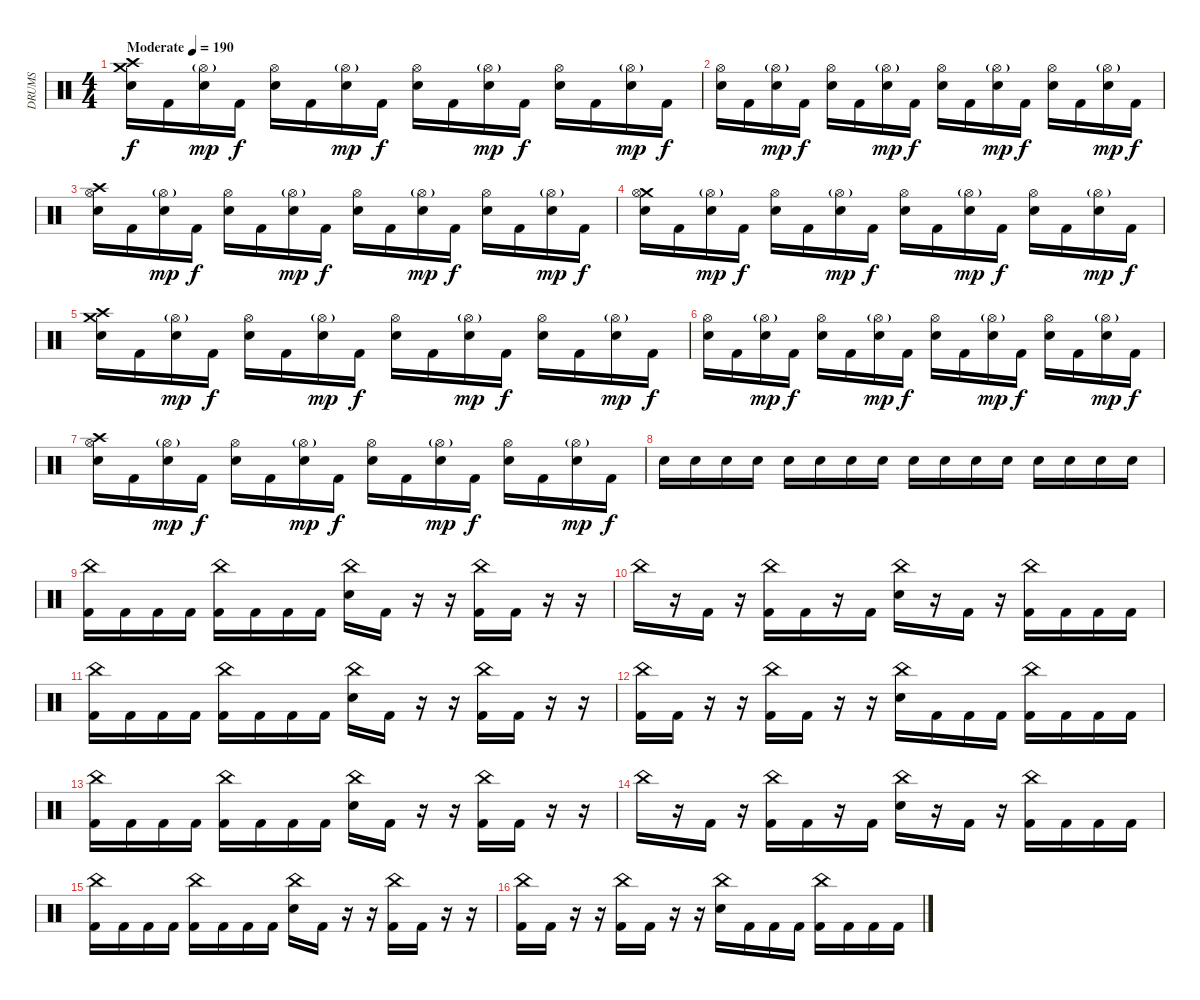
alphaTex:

\track ("DRUMS" "DRUMS") {instrument percussion}
\staff {score}
\articulation defaults
\ts (4 4)
\tempo (190 "Moderate")
\clef neutral
\ks c
("Crash high (hit)" "Crash medium (hit)" "Electric Snare (hit)").16{dy f} "Kick (hit) 2".16 ("Hi-Hat (open)"{g} "Electric Snare (hit)").16{dy mp} "Kick (hit) 2".16{dy f} ("Hi-Hat (open)" "Electric Snare (hit)").16 "Kick (hit) 2".16 ("Hi-Hat (open)"{g} "Electric Snare (hit)").16{dy mp} "Kick (hit) 2".16{dy f} ("Hi-Hat (open)" "Electric Snare (hit)").16 "Kick (hit) 2".16 ("Hi-Hat (open)"{g} "Electric Snare (hit)").16{dy mp} "Kick (hit) 2".16{dy f} ("Hi-Hat (open)" "Electric Snare (hit)").16 "Kick (hit) 2".16 ("Hi-Hat (open)"{g} "Electric Snare (hit)").16{dy mp} "Kick (hit) 2".16{dy f} |
("Hi-Hat (open)" "Electric Snare (hit)").16 "Kick (hit) 2".16 ("Hi-Hat (open)"{g} "Electric Snare (hit)").16{dy mp} "Kick (hit) 2".16{dy f} ("Hi-Hat (open)" "Electric Snare (hit)").16 "Kick (hit) 2".16 ("Hi-Hat (open)"{g} "Electric Snare (hit)").16{dy mp} "Kick (hit) 2".16{dy f} ("Hi-Hat (open)" "Electric Snare (hit)").16 "Kick (hit) 2".16 ("Hi-Hat (open)"{g} "Electric Snare (hit)").16{dy mp} "Kick (hit) 2".16{dy f} ("Hi-Hat (open)" "Electric Snare (hit)").16 "Kick (hit) 2".16 ("Hi-Hat (open)"{g} "Electric Snare (hit)").16{dy mp} "Kick (hit) 2".16{dy f} |
("Crash high (hit)" "Hi-Hat (open)" "Electric Snare (hit)").16 "Kick (hit) 2".16 ("Hi-Hat (open)"{g} "Electric Snare (hit)").16{dy mp} "Kick (hit) 2".16{dy f} ("Hi-Hat (open)" "Electric Snare (hit)").16 "Kick (hit) 2".16 ("Hi-Hat (open)"{g} "Electric Snare (hit)").16{dy mp} "Kick (hit) 2".16{dy f} ("Hi-Hat (open)" "Electric Snare (hit)").16 "Kick (hit) 2".16 ("Hi-Hat (open)"{g} "Electric Snare (hit)").16{dy mp} "Kick (hit) 2".16{dy f} ("Hi-Hat (open)" "Electric Snare (hit)").16 "Kick (hit) 2".16 ("Hi-Hat (open)"{g} "Electric Snare (hit)").16{dy mp} "Kick (hit) 2".16{dy f} |
("Crash medium (hit)" "Hi-Hat (open)" "Electric Snare (hit)").16 "Kick (hit) 2".16 ("Hi-Hat (open)"{g} "Electric Snare (hit)").16{dy mp} "Kick (hit) 2".16{dy f} ("Hi-Hat (open)" "Electric Snare (hit)").16 "Kick (hit) 2".16 ("Hi-Hat (open)"{g} "Electric Snare (hit)").16{dy mp} "Kick (hit) 2".16{dy f} ("Hi-Hat (open)" "Electric Snare (hit)").16 "Kick (hit) 2".16 ("Hi-Hat (open)"{g} "Electric Snare (hit)").16{dy mp} "Kick (hit) 2".16{dy f} ("Hi-Hat (open)" "Electric Snare (hit)").16 "Kick (hit) 2".16 ("Hi-Hat (open)"{g} "Electric Snare (hit)").16{dy mp} "Kick (hit) 2".16{dy f} |
("Crash high (hit)" "Crash medium (hit)" "Electric Snare (hit)").16 "Kick (hit) 2".16 ("Hi-Hat (open)"{g} "Electric Snare (hit)").16{dy mp} "Kick (hit) 2".16{dy f} ("Hi-Hat (open)" "Electric Snare (hit)").16 "Kick (hit) 2".16 ("Hi-Hat (open)"{g} "Electric Snare (hit)").16{dy mp} "Kick (hit) 2".16{dy f} ("Hi-Hat (open)" "Electric Snare (hit)").16 "Kick (hit) 2".16 ("Hi-Hat (open)"{g} "Electric Snare (hit)").16{dy mp} "Kick (hit) 2".16{dy f} ("Hi-Hat (open)" "Electric Snare (hit)").16 "Kick (hit) 2".16 ("Hi-Hat (open)"{g} "Electric Snare (hit)").16{dy mp} "Kick (hit) 2".16{dy f} |
("Hi-Hat (open)" "Electric Snare (hit)").16 "Kick (hit) 2".16 ("Hi-Hat (open)"{g} "Electric Snare (hit)").16{dy mp} "Kick (hit) 2".16{dy f} ("Hi-Hat (open)" "Electric Snare (hit)").16 "Kick (hit) 2".16 ("Hi-Hat (open)"{g} "Electric Snare (hit)").16{dy mp} "Kick (hit) 2".16{dy f} ("Hi-Hat (open)" "Electric Snare (hit)").16 "Kick (hit) 2".16 ("Hi-Hat (open)"{g} "Electric Snare (hit)").16{dy mp} "Kick (hit) 2".16{dy f} ("Hi-Hat (open)" "Electric Snare (hit)").16 "Kick (hit) 2".16 ("Hi-Hat (open)"{g} "Electric Snare (hit)").16{dy mp} "Kick (hit) 2".16{dy f} |
("Crash high (hit)" "Hi-Hat (open)" "Electric Snare (hit)").16 "Kick (hit) 2".16 ("Hi-Hat (open)"{g} "Electric Snare (hit)").16{dy mp} "Kick (hit) 2".16{dy f} ("Hi-Hat (open)" "Electric Snare (hit)").16 "Kick (hit) 2".16 ("Hi-Hat (open)"{g} "Electric Snare (hit)").16{dy mp} "Kick (hit) 2".16{dy f} ("Hi-Hat (open)" "Electric Snare (hit)").16 "Kick (hit) 2".16 ("Hi-Hat (open)"{g} "Electric Snare (hit)").16{dy mp} "Kick (hit) 2".16{dy f} ("Hi-Hat (open)" "Electric Snare (hit)").16 "Kick (hit) 2".16 ("Hi-Hat (open)"{g} "Electric Snare (hit)").16{dy mp} "Kick (hit) 2".16{dy f} |
"Electric Snare (hit)".16 "Electric Snare (hit)".16 "Electric Snare (hit)".16 "Electric Snare (hit)".16 "Electric Snare (hit)".16 "Electric Snare (hit)".16 "Electric Snare (hit)".16 "Electric Snare (hit)".16 "Electric Snare (hit)".16 "Electric Snare (hit)".16 "Electric Snare (hit)".16 "Electric Snare (hit)".16 "Electric Snare (hit)".16 "Electric Snare (hit)".16 "Electric Snare (hit)".16 "Electric Snare (hit)".16 |
("China (hit)" "Kick (hit) 2").16 "Kick (hit) 2".16 "Kick (hit) 2".16 "Kick (hit) 2".16 ("China (hit)" "Kick (hit) 2").16 "Kick (hit) 2".16 "Kick (hit) 2".16 "Kick (hit) 2".16 ("China (hit)" "Electric Snare (hit)").16 "Kick (hit) 2".16 r.16 r.16 ("China (hit)" "Kick (hit) 2").16 "Kick (hit) 2".16 r.16 r.16 |
"China (hit)".16 r.16 "Kick (hit) 2".16 r.16 ("China (hit)" "Kick (hit) 2").16 "Kick (hit) 2".16 r.16 "Kick (hit) 2".16 ("China (hit)" "Electric Snare (hit)").16 r.16 "Kick (hit) 2".16 r.16 ("China (hit)" "Kick (hit) 2").16 "Kick (hit) 2".16 "Kick (hit) 2".16 "Kick (hit) 2".16 |
("China (hit)" "Kick (hit) 2").16 "Kick (hit) 2".16 "Kick (hit) 2".16 "Kick (hit) 2".16 ("China (hit)" "Kick (hit) 2").16 "Kick (hit) 2".16 "Kick (hit) 2".16 "Kick (hit) 2".16 ("China (hit)" "Electric Snare (hit)").16 "Kick (hit) 2".16 r.16 r.16 ("China (hit)" "Kick (hit) 2").16 "Kick (hit) 2".16 r.16 r.16 |
("China (hit)" "Kick (hit) 2").16 "Kick (hit) 2".16 r.16 r.16 ("China (hit)" "Kick (hit) 2").16 "Kick (hit) 2".16 r.16 r.16 ("China (hit)" "Electric Snare (hit)").16 "Kick (hit) 2".16 "Kick (hit) 2".16 "Kick (hit) 2".16 ("China (hit)" "Kick (hit) 2").16 "Kick (hit) 2".16 "Kick (hit) 2".16 "Kick (hit) 2".16 |
("China (hit)" "Kick (hit) 2").16 "Kick (hit) 2".16 "Kick (hit) 2".16 "Kick (hit) 2".16 ("China (hit)" "Kick (hit) 2").16 "Kick (hit) 2".16 "Kick (hit) 2".16 "Kick (hit) 2".16 ("China (hit)" "Electric Snare (hit)").16 "Kick (hit) 2".16 r.16 r.16 ("China (hit)" "Kick (hit) 2").16 "Kick (hit) 2".16 r.16 r.16 |
"China (hit)".16 r.16 "Kick (hit) 2".16 r.16 ("China (hit)" "Kick (hit) 2").16 "Kick (hit) 2".16 r.16 "Kick (hit) 2".16 ("China (hit)" "Electric Snare (hit)").16 r.16 "Kick (hit) 2".16 r.16 ("China (hit)" "Kick (hit) 2").16 "Kick (hit) 2".16 "Kick (hit) 2".16 "Kick (hit) 2".16 |
("China (hit)" "Kick (hit) 2").16 "Kick (hit) 2".16 "Kick (hit) 2".16 "Kick (hit) 2".16 ("China (hit)" "Kick (hit) 2").16 "Kick (hit) 2".16 "Kick (hit) 2".16 "Kick (hit) 2".16 ("China (hit)" "Electric Snare (hit)").16 "Kick (hit) 2".16 r.16 r.16 ("China (hit)" "Kick (hit) 2").16 "Kick (hit) 2".16 r.16 r.16 |
("China (hit)" "Kick (hit) 2").16 "Kick (hit) 2".16 r.16 r.16 ("China (hit)" "Kick (hit) 2").16 "Kick (hit) 2".16 r.16 r.16 ("China (hit)" "Electric Snare (hit)").16 "Kick (hit) 2".16 "Kick (hit) 2".16 "Kick (hit) 2".16 ("China (hit)" "Kick (hit) 2").16 "Kick (hit) 2".16 "Kick (hit) 2".16 "Kick (hit) 2".16
